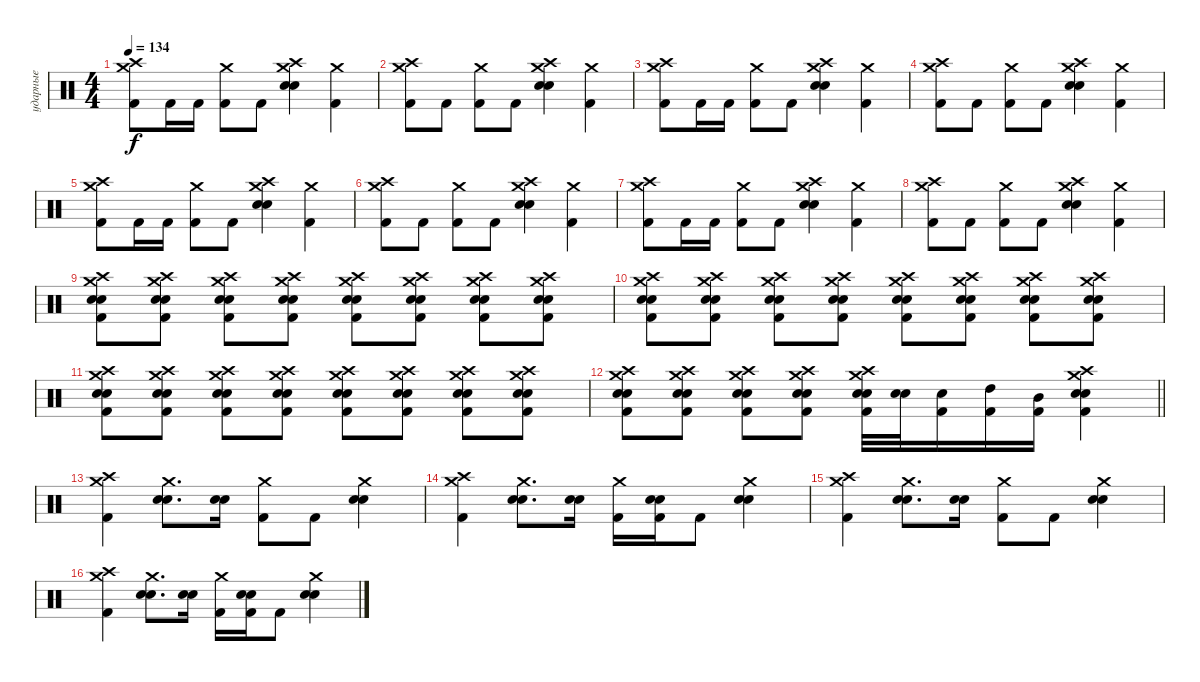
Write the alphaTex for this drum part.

\track ("ударные" "ударные") {instrument percussion}
\staff {score}
\articulation defaults
\ts (4 4)
\tempo 134
\clef neutral
\ks c
("Crash medium (hit)" "Crash high (hit)" "Kick (hit) 2").8{dy f} "Kick (hit) 2".16 "Kick (hit) 2".16 ("Crash medium (hit)" "Kick (hit) 2").8 "Kick (hit) 2".8 ("Crash medium (hit)" "Crash high (hit)" "Snare (hit) 2" "Electric Snare (hit)").4 ("Crash medium (hit)" "Kick (hit) 2").4 |
("Crash medium (hit)" "Crash high (hit)" "Kick (hit) 2").8 "Kick (hit) 2".8 ("Crash medium (hit)" "Kick (hit) 2").8 "Kick (hit) 2".8 ("Crash medium (hit)" "Crash high (hit)" "Snare (hit) 2" "Electric Snare (hit)").4 ("Crash medium (hit)" "Kick (hit) 2").4 |
("Crash medium (hit)" "Crash high (hit)" "Kick (hit) 2").8 "Kick (hit) 2".16 "Kick (hit) 2".16 ("Crash medium (hit)" "Kick (hit) 2").8 "Kick (hit) 2".8 ("Crash medium (hit)" "Crash high (hit)" "Snare (hit) 2" "Electric Snare (hit)").4 ("Crash medium (hit)" "Kick (hit) 2").4 |
("Crash medium (hit)" "Crash high (hit)" "Kick (hit) 2").8 "Kick (hit) 2".8 ("Crash medium (hit)" "Kick (hit) 2").8 "Kick (hit) 2".8 ("Crash medium (hit)" "Crash high (hit)" "Snare (hit) 2" "Electric Snare (hit)").4 ("Crash medium (hit)" "Kick (hit) 2").4 |
("Crash medium (hit)" "Crash high (hit)" "Kick (hit) 2").8 "Kick (hit) 2".16 "Kick (hit) 2".16 ("Crash medium (hit)" "Kick (hit) 2").8 "Kick (hit) 2".8 ("Crash medium (hit)" "Crash high (hit)" "Snare (hit) 2" "Electric Snare (hit)").4 ("Crash medium (hit)" "Kick (hit) 2").4 |
("Crash medium (hit)" "Crash high (hit)" "Kick (hit) 2").8 "Kick (hit) 2".8 ("Crash medium (hit)" "Kick (hit) 2").8 "Kick (hit) 2".8 ("Crash medium (hit)" "Crash high (hit)" "Snare (hit) 2" "Electric Snare (hit)").4 ("Crash medium (hit)" "Kick (hit) 2").4 |
("Crash medium (hit)" "Crash high (hit)" "Kick (hit) 2").8 "Kick (hit) 2".16 "Kick (hit) 2".16 ("Crash medium (hit)" "Kick (hit) 2").8 "Kick (hit) 2".8 ("Crash medium (hit)" "Crash high (hit)" "Snare (hit) 2" "Electric Snare (hit)").4 ("Crash medium (hit)" "Kick (hit) 2").4 |
("Crash medium (hit)" "Crash high (hit)" "Kick (hit) 2").8 "Kick (hit) 2".8 ("Crash medium (hit)" "Kick (hit) 2").8 "Kick (hit) 2".8 ("Crash medium (hit)" "Crash high (hit)" "Snare (hit) 2" "Electric Snare (hit)").4 ("Crash medium (hit)" "Kick (hit) 2").4 |
("Crash high (hit)" "Crash medium (hit)" "Snare (hit) 2" "Electric Snare (hit)" "Kick (hit) 2").8 ("Crash high (hit)" "Crash medium (hit)" "Snare (hit) 2" "Electric Snare (hit)" "Kick (hit) 2").8 ("Crash high (hit)" "Crash medium (hit)" "Snare (hit) 2" "Electric Snare (hit)" "Kick (hit) 2").8 ("Crash high (hit)" "Crash medium (hit)" "Snare (hit) 2" "Electric Snare (hit)" "Kick (hit) 2").8 ("Crash high (hit)" "Crash medium (hit)" "Snare (hit) 2" "Electric Snare (hit)" "Kick (hit) 2").8 ("Crash high (hit)" "Crash medium (hit)" "Snare (hit) 2" "Electric Snare (hit)" "Kick (hit) 2").8 ("Crash high (hit)" "Crash medium (hit)" "Snare (hit) 2" "Electric Snare (hit)" "Kick (hit) 2").8 ("Crash high (hit)" "Crash medium (hit)" "Snare (hit) 2" "Electric Snare (hit)" "Kick (hit) 2").8 |
("Crash high (hit)" "Crash medium (hit)" "Snare (hit) 2" "Electric Snare (hit)" "Kick (hit) 2").8 ("Crash high (hit)" "Crash medium (hit)" "Snare (hit) 2" "Electric Snare (hit)" "Kick (hit) 2").8 ("Crash high (hit)" "Crash medium (hit)" "Snare (hit) 2" "Electric Snare (hit)" "Kick (hit) 2").8 ("Crash high (hit)" "Crash medium (hit)" "Snare (hit) 2" "Electric Snare (hit)" "Kick (hit) 2").8 ("Crash high (hit)" "Crash medium (hit)" "Snare (hit) 2" "Electric Snare (hit)" "Kick (hit) 2").8 ("Crash high (hit)" "Crash medium (hit)" "Snare (hit) 2" "Electric Snare (hit)" "Kick (hit) 2").8 ("Crash high (hit)" "Crash medium (hit)" "Snare (hit) 2" "Electric Snare (hit)" "Kick (hit) 2").8 ("Crash high (hit)" "Crash medium (hit)" "Snare (hit) 2" "Electric Snare (hit)" "Kick (hit) 2").8 |
("Crash high (hit)" "Crash medium (hit)" "Snare (hit) 2" "Electric Snare (hit)" "Kick (hit) 2").8 ("Crash high (hit)" "Crash medium (hit)" "Snare (hit) 2" "Electric Snare (hit)" "Kick (hit) 2").8 ("Crash high (hit)" "Crash medium (hit)" "Snare (hit) 2" "Electric Snare (hit)" "Kick (hit) 2").8 ("Crash high (hit)" "Crash medium (hit)" "Snare (hit) 2" "Electric Snare (hit)" "Kick (hit) 2").8 ("Crash high (hit)" "Crash medium (hit)" "Snare (hit) 2" "Electric Snare (hit)" "Kick (hit) 2").8 ("Crash high (hit)" "Crash medium (hit)" "Snare (hit) 2" "Electric Snare (hit)" "Kick (hit) 2").8 ("Crash high (hit)" "Crash medium (hit)" "Snare (hit) 2" "Electric Snare (hit)" "Kick (hit) 2").8 ("Crash high (hit)" "Crash medium (hit)" "Snare (hit) 2" "Electric Snare (hit)" "Kick (hit) 2").8 |
\barLineRight lightlight
("Crash high (hit)" "Crash medium (hit)" "Snare (hit) 2" "Electric Snare (hit)" "Kick (hit) 2").8 ("Crash high (hit)" "Crash medium (hit)" "Snare (hit) 2" "Electric Snare (hit)" "Kick (hit) 2").8 ("Crash high (hit)" "Crash medium (hit)" "Snare (hit) 2" "Electric Snare (hit)" "Kick (hit) 2").8 ("Crash high (hit)" "Crash medium (hit)" "Snare (hit) 2" "Electric Snare (hit)" "Kick (hit) 2").8 ("Crash high (hit)" "Crash medium (hit)" "Snare (hit) 2" "Electric Snare (hit)" "Kick (hit) 2").32 ("Snare (hit) 2" "Electric Snare (hit)").32 ("Snare (hit) 2" "Kick (hit) 2").16 ("High Tom (hit)" "Kick (hit) 2").16 ("Mid Tom (hit)" "Kick (hit) 2").16 ("Crash high (hit)" "Crash medium (hit)" "Snare (hit) 2" "Electric Snare (hit)" "Kick (hit) 2").4 |
("Crash high (hit)" "Crash medium (hit)" "Kick (hit) 2").4 ("Crash medium (hit)" "Snare (hit) 2" "Electric Snare (hit)").8{d} ("Snare (hit) 2" "Electric Snare (hit)").16 ("Crash medium (hit)" "Kick (hit) 2").8 "Kick (hit) 2".8 ("Crash medium (hit)" "Snare (hit) 2" "Electric Snare (hit)").4 |
("Crash high (hit)" "Crash medium (hit)" "Kick (hit) 2").4 ("Crash medium (hit)" "Snare (hit) 2" "Electric Snare (hit)").8{d} ("Snare (hit) 2" "Electric Snare (hit)").16 ("Crash medium (hit)" "Kick (hit) 2").16 ("Snare (hit) 2" "Electric Snare (hit)" "Kick (hit) 2").16 "Kick (hit) 2".8 ("Crash medium (hit)" "Snare (hit) 2" "Electric Snare (hit)").4 |
("Crash high (hit)" "Crash medium (hit)" "Kick (hit) 2").4 ("Crash medium (hit)" "Snare (hit) 2" "Electric Snare (hit)").8{d} ("Snare (hit) 2" "Electric Snare (hit)").16 ("Crash medium (hit)" "Kick (hit) 2").8 "Kick (hit) 2".8 ("Crash medium (hit)" "Snare (hit) 2" "Electric Snare (hit)").4 |
("Crash high (hit)" "Crash medium (hit)" "Kick (hit) 2").4 ("Crash medium (hit)" "Snare (hit) 2" "Electric Snare (hit)").8{d} ("Snare (hit) 2" "Electric Snare (hit)").16 ("Crash medium (hit)" "Kick (hit) 2").16 ("Snare (hit) 2" "Electric Snare (hit)" "Kick (hit) 2").16 "Kick (hit) 2".8 ("Crash medium (hit)" "Snare (hit) 2" "Electric Snare (hit)").4
